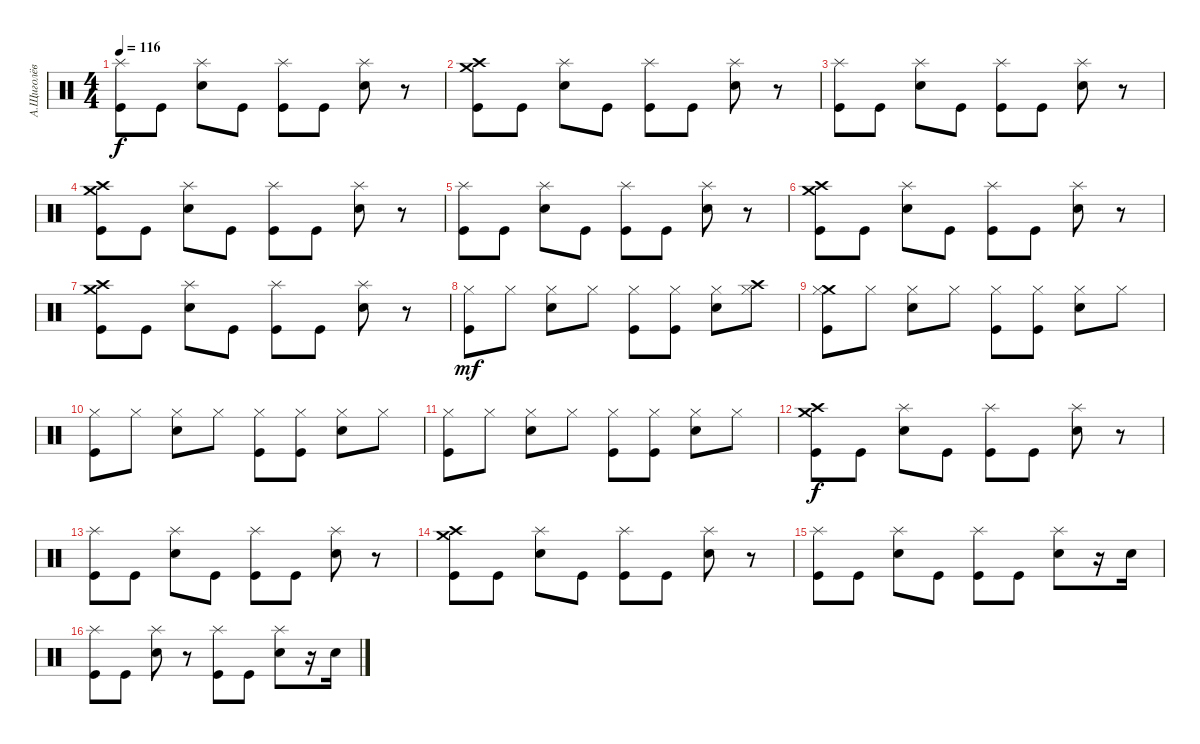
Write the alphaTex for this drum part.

\track ("А.Щиголёв" "А.Щиголёв") {instrument percussion}
\staff {score}
\articulation defaults
\ts (4 4)
\tempo 116
\clef neutral
\ks c
("Splash (hit)" "Kick (hit)").8{dy f} "Kick (hit)".8 ("Splash (hit)" "Electric Snare (hit)").8 "Kick (hit)".8 ("Splash (hit)" "Kick (hit)").8 "Kick (hit)".8 ("Splash (hit)" "Electric Snare (hit)").8 r.8 |
("Crash medium (hit)" "Crash high (hit)" "Kick (hit)").8 "Kick (hit)".8 ("Splash (hit)" "Electric Snare (hit)").8 "Kick (hit)".8 ("Splash (hit)" "Kick (hit)").8 "Kick (hit)".8 ("Splash (hit)" "Electric Snare (hit)").8 r.8 |
("Splash (hit)" "Kick (hit)").8 "Kick (hit)".8 ("Splash (hit)" "Electric Snare (hit)").8 "Kick (hit)".8 ("Splash (hit)" "Kick (hit)").8 "Kick (hit)".8 ("Splash (hit)" "Electric Snare (hit)").8 r.8 |
("Crash medium (hit)" "Crash high (hit)" "Kick (hit)").8 "Kick (hit)".8 ("Splash (hit)" "Electric Snare (hit)").8 "Kick (hit)".8 ("Splash (hit)" "Kick (hit)").8 "Kick (hit)".8 ("Splash (hit)" "Electric Snare (hit)").8 r.8 |
("Splash (hit)" "Kick (hit)").8 "Kick (hit)".8 ("Splash (hit)" "Electric Snare (hit)").8 "Kick (hit)".8 ("Splash (hit)" "Kick (hit)").8 "Kick (hit)".8 ("Splash (hit)" "Electric Snare (hit)").8 r.8 |
("Crash medium (hit)" "Crash high (hit)" "Kick (hit)").8 "Kick (hit)".8 ("Splash (hit)" "Electric Snare (hit)").8 "Kick (hit)".8 ("Splash (hit)" "Kick (hit)").8 "Kick (hit)".8 ("Splash (hit)" "Electric Snare (hit)").8 r.8 |
("Crash medium (hit)" "Crash high (hit)" "Kick (hit)").8 "Kick (hit)".8 ("Splash (hit)" "Electric Snare (hit)").8 "Kick (hit)".8 ("Splash (hit)" "Kick (hit)").8 "Kick (hit)".8 ("Splash (hit)" "Electric Snare (hit)").8 r.8 |
("Hi-Hat (closed)" "Kick (hit)").8{dy mf} "Hi-Hat (closed)".8 ("Hi-Hat (closed)" "Electric Snare (hit)").8 "Hi-Hat (closed)".8 ("Hi-Hat (closed)" "Kick (hit)").8 ("Hi-Hat (closed)" "Kick (hit)").8 ("Hi-Hat (closed)" "Electric Snare (hit)").8 ("Crash high (hit)" "Hi-Hat (closed)").8 |
("Crash medium (hit)" "Hi-Hat (closed)" "Kick (hit)").8 "Hi-Hat (closed)".8 ("Hi-Hat (closed)" "Electric Snare (hit)").8 "Hi-Hat (closed)".8 ("Hi-Hat (closed)" "Kick (hit)").8 ("Hi-Hat (closed)" "Kick (hit)").8 ("Hi-Hat (closed)" "Electric Snare (hit)").8 "Hi-Hat (closed)".8 |
("Hi-Hat (closed)" "Kick (hit)").8 "Hi-Hat (closed)".8 ("Hi-Hat (closed)" "Electric Snare (hit)").8 "Hi-Hat (closed)".8 ("Hi-Hat (closed)" "Kick (hit)").8 ("Hi-Hat (closed)" "Kick (hit)").8 ("Hi-Hat (closed)" "Electric Snare (hit)").8 "Hi-Hat (closed)".8 |
("Hi-Hat (closed)" "Kick (hit)").8 "Hi-Hat (closed)".8 ("Hi-Hat (closed)" "Electric Snare (hit)").8 "Hi-Hat (closed)".8 ("Hi-Hat (closed)" "Kick (hit)").8 ("Hi-Hat (closed)" "Kick (hit)").8 ("Hi-Hat (closed)" "Electric Snare (hit)").8 "Hi-Hat (closed)".8 |
("Crash medium (hit)" "Crash high (hit)" "Kick (hit)").8{dy f} "Kick (hit)".8 ("Splash (hit)" "Electric Snare (hit)").8 "Kick (hit)".8 ("Splash (hit)" "Kick (hit)").8 "Kick (hit)".8 ("Splash (hit)" "Electric Snare (hit)").8 r.8 |
("Splash (hit)" "Kick (hit)").8 "Kick (hit)".8 ("Splash (hit)" "Electric Snare (hit)").8 "Kick (hit)".8 ("Splash (hit)" "Kick (hit)").8 "Kick (hit)".8 ("Splash (hit)" "Electric Snare (hit)").8 r.8 |
("Crash medium (hit)" "Crash high (hit)" "Kick (hit)").8 "Kick (hit)".8 ("Splash (hit)" "Electric Snare (hit)").8 "Kick (hit)".8 ("Splash (hit)" "Kick (hit)").8 "Kick (hit)".8 ("Splash (hit)" "Electric Snare (hit)").8 r.8 |
("Splash (hit)" "Kick (hit)").8 "Kick (hit)".8 ("Splash (hit)" "Electric Snare (hit)").8 "Kick (hit)".8 ("Splash (hit)" "Kick (hit)").8 "Kick (hit)".8 ("Splash (hit)" "Electric Snare (hit)").8 r.16 "Electric Snare (hit)".16 |
("Splash (hit)" "Kick (hit)").8 "Kick (hit)".8 ("Splash (hit)" "Electric Snare (hit)").8 r.8 ("Splash (hit)" "Kick (hit)").8 "Kick (hit)".8 ("Splash (hit)" "Electric Snare (hit)").8 r.16 "Electric Snare (hit)".16
